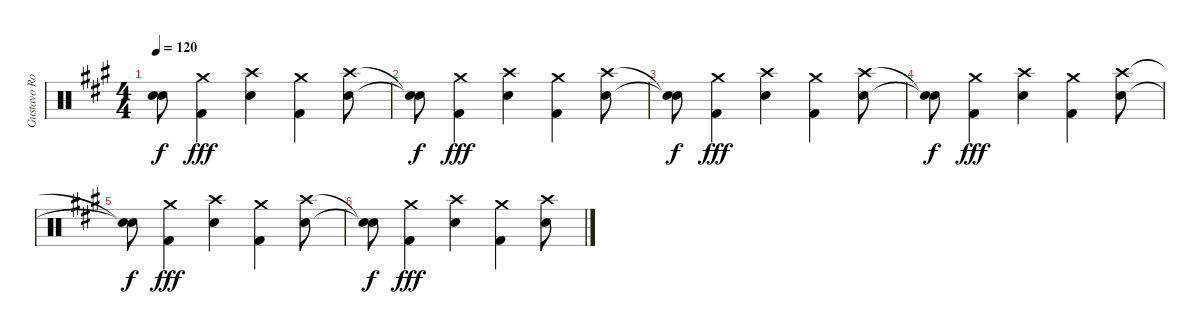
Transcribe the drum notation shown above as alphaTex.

\track ("Gustavo Rowek" "Gustavo Ro") {instrument percussion}
\staff {score}
\articulation defaults
\ts (4 4)
\tempo 120
\clef neutral
\ks a
("Snare (hit)"{t} "Snare (hit)"{t}).8{dy f volume 11} ("Crash medium (hit)" "Kick (hit) 2").4{dy fff} ("Crash high (hit)" "Snare (hit) 2").4 ("Crash medium (hit)" "Kick (hit) 2").4 ("Crash high (hit)" "Snare (hit) 2").8 |
("Snare (hit)"{t} "Snare (hit)"{t}).8{dy f volume 9} ("Crash medium (hit)" "Kick (hit) 2").4{dy fff} ("Crash high (hit)" "Snare (hit) 2").4 ("Crash medium (hit)" "Kick (hit) 2").4 ("Crash high (hit)" "Snare (hit) 2").8 |
("Snare (hit)"{t} "Snare (hit)"{t}).8{dy f volume 7} ("Crash medium (hit)" "Kick (hit) 2").4{dy fff} ("Crash high (hit)" "Snare (hit) 2").4 ("Crash medium (hit)" "Kick (hit) 2").4 ("Crash high (hit)" "Snare (hit) 2").8 |
("Snare (hit)"{t} "Snare (hit)"{t}).8{dy f volume 5} ("Crash medium (hit)" "Kick (hit) 2").4{dy fff} ("Crash high (hit)" "Snare (hit) 2").4 ("Crash medium (hit)" "Kick (hit) 2").4 ("Crash high (hit)" "Snare (hit) 2").8 |
("Snare (hit)"{t} "Snare (hit)"{t}).8{dy f volume 3} ("Crash medium (hit)" "Kick (hit) 2").4{dy fff} ("Crash high (hit)" "Snare (hit) 2").4 ("Crash medium (hit)" "Kick (hit) 2").4 ("Crash high (hit)" "Snare (hit) 2").8 |
("Snare (hit)"{t} "Snare (hit)"{t}).8{dy f volume 0} ("Crash medium (hit)" "Kick (hit) 2").4{dy fff} ("Crash high (hit)" "Snare (hit) 2").4 ("Crash medium (hit)" "Kick (hit) 2").4 ("Crash high (hit)" "Snare (hit) 2").8
